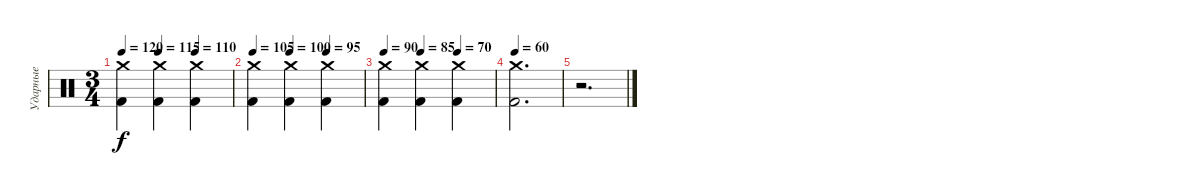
\track ("Ударные" "Ударные") {instrument percussion}
\staff {score}
\articulation defaults
\ts (3 4)
\tempo 120
\tempo (115 0.3333333333333333)
\tempo (110 0.6666666666666666)
\clef neutral
\ks c
("Kick (hit) 2" "Crash medium (hit)").4{dy f} ("Kick (hit) 2" "Crash medium (hit)").4 ("Kick (hit) 2" "Crash medium (hit)").4 |
\tempo 105
\tempo (100 0.3333333333333333)
\tempo (95 0.6666666666666666)
("Kick (hit) 2" "Crash medium (hit)").4 ("Kick (hit) 2" "Crash medium (hit)").4 ("Kick (hit) 2" "Crash medium (hit)").4 |
\tempo 90
\tempo (85 0.3333333333333333)
\tempo (70 0.6666666666666666)
("Kick (hit) 2" "Crash medium (hit)").4 ("Kick (hit) 2" "Crash medium (hit)").4 ("Kick (hit) 2" "Crash medium (hit)").4 |
\tempo 60
("Kick (hit) 2" "Crash medium (hit)").2{d} |
r.2{d}
